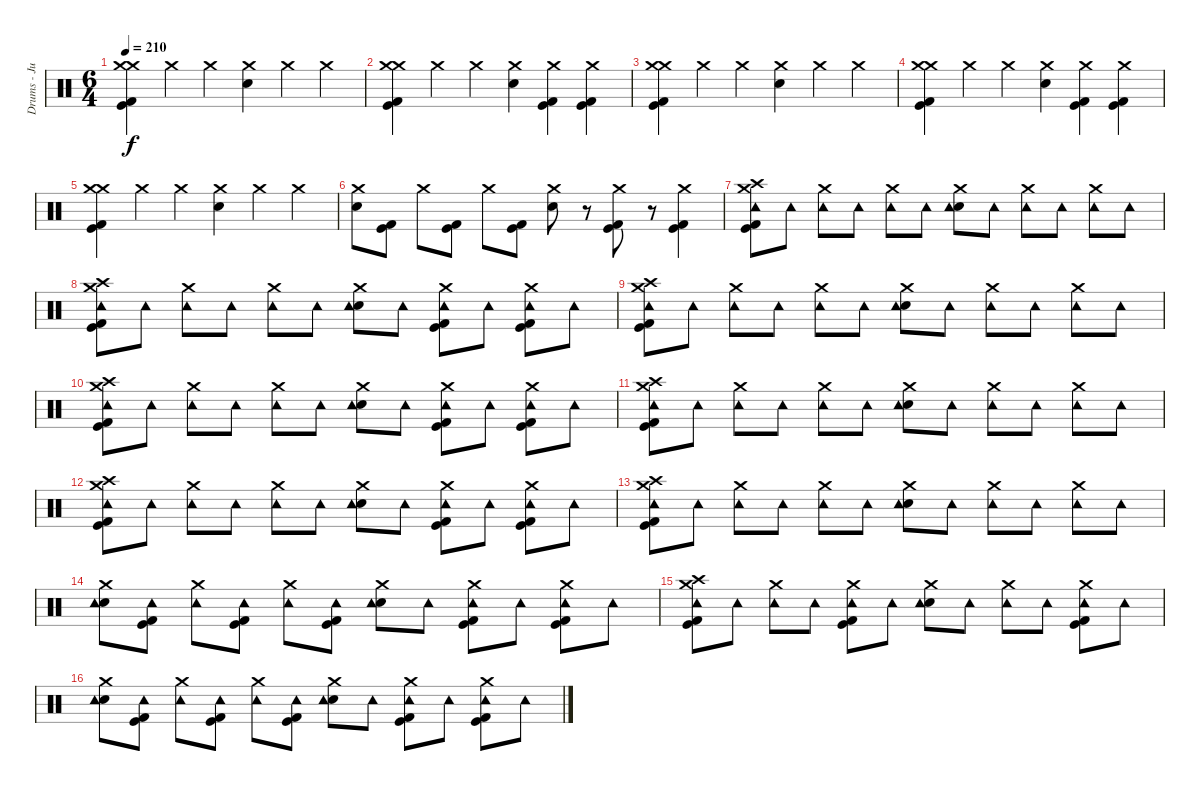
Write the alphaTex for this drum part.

\track ("Drums - Justin Foley" "Drums - Ju") {instrument percussion}
\staff {score}
\articulation defaults
\ts (6 4)
\tempo 210
\clef neutral
\ks c
("Crash medium (hit)" "Kick (hit) 2" "Kick (hit)" "Crash medium (hit)").4{dy f} "Crash medium (hit)".4 "Crash medium (hit)".4 ("Crash medium (hit)" "Snare (hit) 2").4 "Crash medium (hit)".4 "Crash medium (hit)".4 |
("Crash medium (hit)" "Kick (hit) 2" "Kick (hit)" "Crash medium (hit)").4 "Crash medium (hit)".4 "Crash medium (hit)".4 ("Crash medium (hit)" "Snare (hit) 2").4 ("Crash medium (hit)" "Kick (hit) 2" "Kick (hit)").4 ("Crash medium (hit)" "Kick (hit) 2" "Kick (hit)").4 |
("Crash medium (hit)" "Kick (hit) 2" "Kick (hit)" "Crash medium (hit)").4 "Crash medium (hit)".4 "Crash medium (hit)".4 ("Crash medium (hit)" "Snare (hit) 2").4 "Crash medium (hit)".4 "Crash medium (hit)".4 |
("Crash medium (hit)" "Kick (hit) 2" "Kick (hit)" "Crash medium (hit)").4 "Crash medium (hit)".4 "Crash medium (hit)".4 ("Crash medium (hit)" "Snare (hit) 2").4 ("Crash medium (hit)" "Kick (hit) 2" "Kick (hit)").4 ("Crash medium (hit)" "Kick (hit) 2" "Kick (hit)").4 |
("Crash medium (hit)" "Kick (hit) 2" "Kick (hit)" "Crash medium (hit)").4 "Crash medium (hit)".4 "Crash medium (hit)".4 ("Crash medium (hit)" "Snare (hit) 2").4 "Crash medium (hit)".4 "Crash medium (hit)".4 |
("Crash medium (hit)" "Snare (hit) 2").8 ("Kick (hit) 2" "Kick (hit)").8 "Crash medium (hit)".8 ("Kick (hit) 2" "Kick (hit)").8 "Crash medium (hit)".8 ("Kick (hit) 2" "Kick (hit)").8 ("Crash medium (hit)" "Snare (hit) 2").8 r.8 ("Crash medium (hit)" "Kick (hit) 2" "Kick (hit)").8 r.8 ("Crash medium (hit)" "Kick (hit) 2" "Kick (hit)").4 |
("Crash medium (hit)" "Kick (hit) 2" "Kick (hit)" "Crash high (hit)" "Tambourine (hit)").8{volume 13} "Tambourine (hit)".8 ("Crash medium (hit)" "Tambourine (hit)").8 "Tambourine (hit)".8 ("Crash medium (hit)" "Tambourine (hit)").8 "Tambourine (hit)".8 ("Crash medium (hit)" "Snare (hit) 2" "Tambourine (hit)").8 "Tambourine (hit)".8 ("Crash medium (hit)" "Tambourine (hit)").8 "Tambourine (hit)".8 ("Crash medium (hit)" "Tambourine (hit)").8 "Tambourine (hit)".8 |
("Crash medium (hit)" "Kick (hit) 2" "Kick (hit)" "Crash high (hit)" "Tambourine (hit)").8{volume 13} "Tambourine (hit)".8 ("Crash medium (hit)" "Tambourine (hit)").8 "Tambourine (hit)".8 ("Crash medium (hit)" "Tambourine (hit)").8 "Tambourine (hit)".8 ("Crash medium (hit)" "Snare (hit) 2" "Tambourine (hit)").8 "Tambourine (hit)".8 ("Crash medium (hit)" "Kick (hit) 2" "Kick (hit)" "Tambourine (hit)").8 "Tambourine (hit)".8 ("Crash medium (hit)" "Kick (hit) 2" "Kick (hit)" "Tambourine (hit)").8 "Tambourine (hit)".8 |
("Crash medium (hit)" "Kick (hit) 2" "Kick (hit)" "Crash high (hit)" "Tambourine (hit)").8{volume 13} "Tambourine (hit)".8 ("Crash medium (hit)" "Tambourine (hit)").8 "Tambourine (hit)".8 ("Crash medium (hit)" "Tambourine (hit)").8 "Tambourine (hit)".8 ("Crash medium (hit)" "Snare (hit) 2" "Tambourine (hit)").8 "Tambourine (hit)".8 ("Crash medium (hit)" "Tambourine (hit)").8 "Tambourine (hit)".8 ("Crash medium (hit)" "Tambourine (hit)").8 "Tambourine (hit)".8 |
("Crash medium (hit)" "Kick (hit) 2" "Kick (hit)" "Crash high (hit)" "Tambourine (hit)").8{volume 13} "Tambourine (hit)".8 ("Crash medium (hit)" "Tambourine (hit)").8 "Tambourine (hit)".8 ("Crash medium (hit)" "Tambourine (hit)").8 "Tambourine (hit)".8 ("Crash medium (hit)" "Snare (hit) 2" "Tambourine (hit)").8 "Tambourine (hit)".8 ("Crash medium (hit)" "Kick (hit) 2" "Kick (hit)" "Tambourine (hit)").8 "Tambourine (hit)".8 ("Crash medium (hit)" "Kick (hit) 2" "Kick (hit)" "Tambourine (hit)").8 "Tambourine (hit)".8 |
("Crash medium (hit)" "Kick (hit) 2" "Kick (hit)" "Crash high (hit)" "Tambourine (hit)").8{volume 13} "Tambourine (hit)".8 ("Crash medium (hit)" "Tambourine (hit)").8 "Tambourine (hit)".8 ("Crash medium (hit)" "Tambourine (hit)").8 "Tambourine (hit)".8 ("Crash medium (hit)" "Snare (hit) 2" "Tambourine (hit)").8 "Tambourine (hit)".8 ("Crash medium (hit)" "Tambourine (hit)").8 "Tambourine (hit)".8 ("Crash medium (hit)" "Tambourine (hit)").8 "Tambourine (hit)".8 |
("Crash medium (hit)" "Kick (hit) 2" "Kick (hit)" "Crash high (hit)" "Tambourine (hit)").8{volume 13} "Tambourine (hit)".8 ("Crash medium (hit)" "Tambourine (hit)").8 "Tambourine (hit)".8 ("Crash medium (hit)" "Tambourine (hit)").8 "Tambourine (hit)".8 ("Crash medium (hit)" "Snare (hit) 2" "Tambourine (hit)").8 "Tambourine (hit)".8 ("Crash medium (hit)" "Kick (hit) 2" "Kick (hit)" "Tambourine (hit)").8 "Tambourine (hit)".8 ("Crash medium (hit)" "Kick (hit) 2" "Kick (hit)" "Tambourine (hit)").8 "Tambourine (hit)".8 |
("Crash medium (hit)" "Kick (hit) 2" "Kick (hit)" "Crash high (hit)" "Tambourine (hit)").8{volume 13} "Tambourine (hit)".8 ("Crash medium (hit)" "Tambourine (hit)").8 "Tambourine (hit)".8 ("Crash medium (hit)" "Tambourine (hit)").8 "Tambourine (hit)".8 ("Crash medium (hit)" "Snare (hit) 2" "Tambourine (hit)").8 "Tambourine (hit)".8 ("Crash medium (hit)" "Tambourine (hit)").8 "Tambourine (hit)".8 ("Crash medium (hit)" "Tambourine (hit)").8 "Tambourine (hit)".8 |
("Crash medium (hit)" "Snare (hit) 2" "Tambourine (hit)").8 ("Kick (hit) 2" "Kick (hit)" "Tambourine (hit)").8 ("Crash medium (hit)" "Tambourine (hit)").8 ("Kick (hit) 2" "Kick (hit)" "Tambourine (hit)").8 ("Crash medium (hit)" "Tambourine (hit)").8 ("Kick (hit) 2" "Kick (hit)" "Tambourine (hit)").8 ("Crash medium (hit)" "Snare (hit) 2" "Tambourine (hit)").8 "Tambourine (hit)".8 ("Crash medium (hit)" "Kick (hit) 2" "Kick (hit)" "Tambourine (hit)").8 "Tambourine (hit)".8 ("Crash medium (hit)" "Kick (hit) 2" "Kick (hit)" "Tambourine (hit)").8 "Tambourine (hit)".8 |
("Crash medium (hit)" "Kick (hit) 2" "Kick (hit)" "Crash high (hit)" "Tambourine (hit)").8 "Tambourine (hit)".8 ("Crash medium (hit)" "Tambourine (hit)").8 "Tambourine (hit)".8 ("Crash medium (hit)" "Kick (hit) 2" "Kick (hit)" "Tambourine (hit)").8 "Tambourine (hit)".8 ("Crash medium (hit)" "Snare (hit) 2" "Tambourine (hit)").8 "Tambourine (hit)".8 ("Crash medium (hit)" "Tambourine (hit)").8 "Tambourine (hit)".8 ("Crash medium (hit)" "Kick (hit) 2" "Kick (hit)" "Tambourine (hit)").8 "Tambourine (hit)".8 |
("Crash medium (hit)" "Snare (hit) 2" "Tambourine (hit)").8 ("Kick (hit) 2" "Kick (hit)" "Tambourine (hit)").8 ("Crash medium (hit)" "Tambourine (hit)").8 ("Kick (hit) 2" "Kick (hit)" "Tambourine (hit)").8 ("Crash medium (hit)" "Tambourine (hit)").8 ("Kick (hit) 2" "Kick (hit)" "Tambourine (hit)").8 ("Crash medium (hit)" "Snare (hit) 2" "Tambourine (hit)").8 "Tambourine (hit)".8 ("Crash medium (hit)" "Kick (hit) 2" "Kick (hit)" "Tambourine (hit)").8 "Tambourine (hit)".8 ("Crash medium (hit)" "Kick (hit) 2" "Kick (hit)" "Tambourine (hit)").8 "Tambourine (hit)".8
